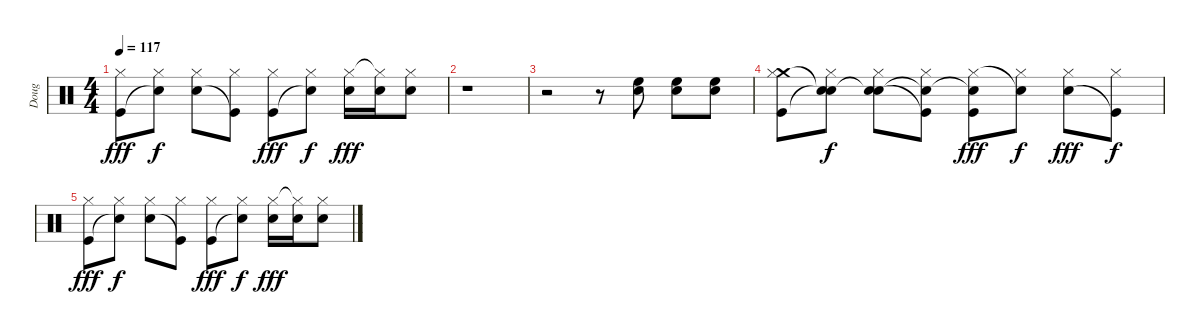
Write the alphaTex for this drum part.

\track ("Doug" "Doug") {instrument percussion}
\staff {score}
\articulation defaults
\ts (4 4)
\tempo 117
\clef neutral
\ks c
("Hi-Hat (closed)" "Kick (hit)").8{dy fff} ("Hi-Hat (closed)" "Snare (hit)"{t}).8{dy f} ("Hi-Hat (closed)" "Snare (hit) 2").8 ("Hi-Hat (closed)" "Kick (hit)"{t}).8 ("Hi-Hat (closed)" "Kick (hit)").8{dy fff} ("Hi-Hat (closed)" "Snare (hit)"{t}).8{dy f} ("Hi-Hat (closed)" "Snare (hit) 2").16{dy fff} ("Hi-Hat (closed)"{t} "Snare (hit) 2").16 ("Hi-Hat (closed)" "Snare (hit) 2").8 |
r.1 |
r.2 r.8 ("High Floor Tom (hit)" "Snare (hit) 2").8 ("High Floor Tom (hit)" "Snare (hit) 2").8 ("High Floor Tom (hit)" "Snare (hit) 2").8 |
("Crash medium (hit)" "Hi-Hat (closed)" "Kick (hit)").8 ("Snare (hit)"{t} "Hi-Hat (closed)" "Snare (hit)"{t}).8{dy f} ("Snare (hit)"{t} "Hi-Hat (closed)" "Snare (hit) 2").8 ("Snare (hit)"{t} "Hi-Hat (closed)" "Kick (hit)"{t}).8 ("Snare (hit)"{t} "Hi-Hat (closed)" "Kick (hit)").8{dy fff} ("Hi-Hat (closed)" "Snare (hit)"{t}).8{dy f} ("Hi-Hat (closed)" "Snare (hit) 2").8{dy fff} ("Hi-Hat (closed)" "Kick (hit)"{t}).8{dy f} |
("Hi-Hat (closed)" "Kick (hit)").8{dy fff} ("Hi-Hat (closed)" "Snare (hit)"{t}).8{dy f} ("Hi-Hat (closed)" "Snare (hit) 2").8 ("Hi-Hat (closed)" "Kick (hit)"{t}).8 ("Hi-Hat (closed)" "Kick (hit)").8{dy fff} ("Hi-Hat (closed)" "Snare (hit)"{t}).8{dy f} ("Hi-Hat (closed)" "Snare (hit) 2").16{dy fff} ("Hi-Hat (closed)"{t} "Snare (hit) 2").16 ("Hi-Hat (closed)" "Snare (hit) 2").8
